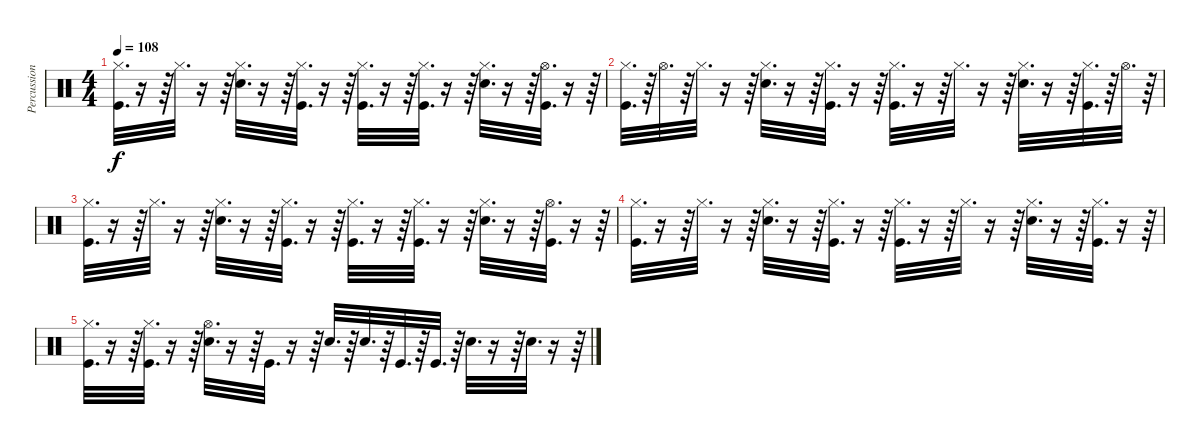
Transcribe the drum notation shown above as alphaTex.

\track ("Percussions" "Percussion") {instrument percussion}
\staff {score}
\articulation defaults
\ts (4 4)
\tempo 108
\clef neutral
\ks c
("Hi-Hat (closed)" "Kick (hit)").32{d dy f} r.16 r.64 "Hi-Hat (closed)".32{d} r.16 r.64 ("Hi-Hat (closed)" "Snare (hit) 2").32{d} r.16 r.64 ("Hi-Hat (closed)" "Kick (hit)").32{d} r.16 r.64 ("Hi-Hat (closed)" "Kick (hit)").32{d} r.16 r.64 ("Hi-Hat (closed)" "Kick (hit)").32{d} r.16 r.64 ("Hi-Hat (closed)" "Snare (hit) 2").32{d} r.16 r.64 ("Hi-Hat (open)" "Kick (hit)").32{d} r.16 r.64 |
("Hi-Hat (closed)" "Kick (hit)").32{d} r.64 "Hi-Hat (open)".32{d} r.64 "Hi-Hat (closed)".32{d} r.16 r.64 ("Hi-Hat (closed)" "Snare (hit) 2").32{d} r.16 r.64 ("Hi-Hat (closed)" "Kick (hit)").32{d} r.16 r.64 ("Hi-Hat (closed)" "Kick (hit)").32{d} r.16 r.64 "Hi-Hat (closed)".32{d} r.16 r.64 ("Hi-Hat (closed)" "Snare (hit) 2").32{d} r.16 r.64 ("Hi-Hat (closed)" "Kick (hit)").32{d} r.64 "Hi-Hat (open)".32{d} r.64 |
("Hi-Hat (closed)" "Kick (hit)").32{d} r.16 r.64 "Hi-Hat (closed)".32{d} r.16 r.64 ("Hi-Hat (closed)" "Snare (hit) 2").32{d} r.16 r.64 ("Hi-Hat (closed)" "Kick (hit)").32{d} r.16 r.64 ("Hi-Hat (closed)" "Kick (hit)").32{d} r.16 r.64 ("Hi-Hat (closed)" "Kick (hit)").32{d} r.16 r.64 ("Hi-Hat (closed)" "Snare (hit) 2").32{d} r.16 r.64 ("Hi-Hat (open)" "Kick (hit)").32{d} r.16 r.64 |
("Hi-Hat (closed)" "Kick (hit)").32{d} r.16 r.64 "Hi-Hat (closed)".32{d} r.16 r.64 ("Hi-Hat (closed)" "Snare (hit) 2").32{d} r.16 r.64 ("Hi-Hat (closed)" "Kick (hit)").32{d} r.16 r.64 ("Hi-Hat (closed)" "Kick (hit)").32{d} r.16 r.64 "Hi-Hat (closed)".32{d} r.16 r.64 ("Hi-Hat (closed)" "Snare (hit) 2").32{d} r.16 r.64 ("Hi-Hat (closed)" "Kick (hit)").32{d} r.16 r.64 |
("Hi-Hat (closed)" "Kick (hit)").32{d} r.16 r.64 ("Hi-Hat (closed)" "Kick (hit)").32{d} r.16 r.64 ("Hi-Hat (open)" "Snare (hit) 2").32{d} r.16 r.64 "Kick (hit)".32{d} r.16 r.64 "Snare (hit) 2".32{d} r.64 "Snare (hit) 2".32{d} r.64 "Kick (hit)".32{d} r.64 "Kick (hit)".32{d} r.64 "Snare (hit) 2".32{d} r.16 r.64 "Snare (hit) 2".32{d} r.16 r.64
